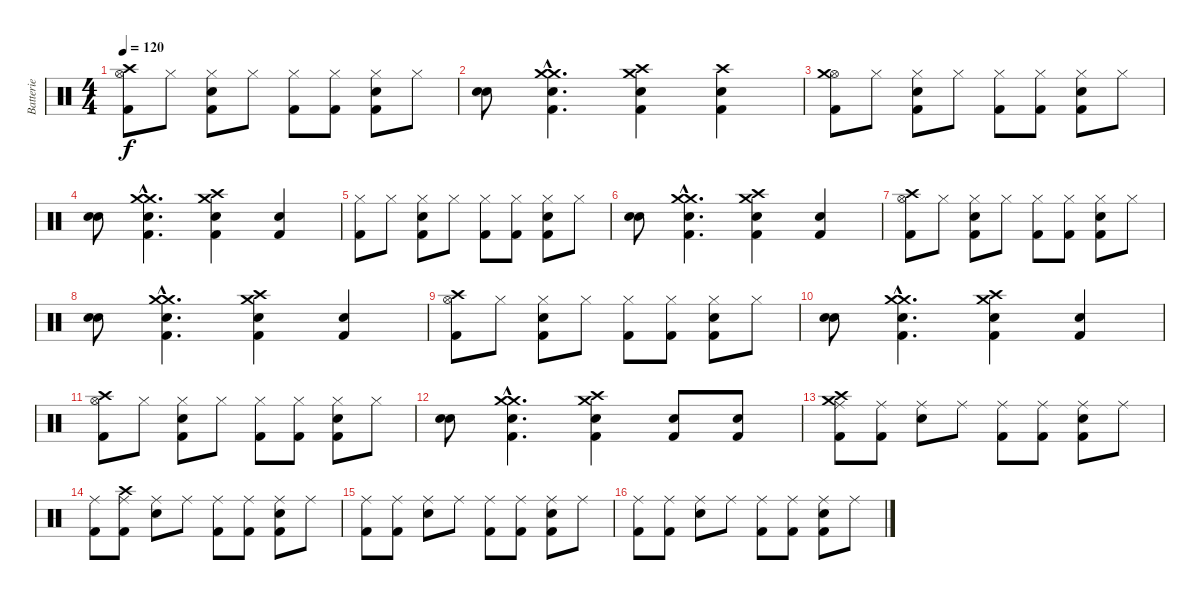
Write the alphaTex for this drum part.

\track ("Batterie" "Batterie") {instrument percussion}
\staff {score}
\articulation defaults
\ts (4 4)
\tempo 120
\clef neutral
\ks c
("Hi-Hat (open)" "Crash high (hit)" "Kick (hit) 2").8{dy f} "Hi-Hat (closed)".8 ("Hi-Hat (closed)" "Snare (hit) 2" "Kick (hit) 2").8 "Hi-Hat (closed)".8 ("Hi-Hat (closed)" "Kick (hit) 2").8 ("Hi-Hat (closed)" "Kick (hit) 2").8 ("Hi-Hat (closed)" "Snare (hit) 2" "Kick (hit) 2").8 "Hi-Hat (closed)".8 |
("Snare (hit) 2" "Snare (hit) 2").8 ("Crash medium (hit)"{hac} "Crash medium (hit)"{hac} "Snare (hit) 2"{hac} "Kick (hit) 2"{hac}).4{d} ("Crash medium (hit)" "Crash high (hit)" "Snare (hit) 2" "Kick (hit) 2").4 ("Crash high (hit)" "Snare (hit) 2" "Kick (hit) 2").4 |
("Hi-Hat (open)" "Crash medium (hit)" "Kick (hit) 2").8 "Hi-Hat (closed)".8 ("Hi-Hat (closed)" "Snare (hit) 2" "Kick (hit) 2").8 "Hi-Hat (closed)".8 ("Hi-Hat (closed)" "Kick (hit) 2").8 ("Hi-Hat (closed)" "Kick (hit) 2").8 ("Hi-Hat (closed)" "Snare (hit) 2" "Kick (hit) 2").8 "Hi-Hat (closed)".8 |
("Snare (hit) 2" "Snare (hit) 2").8 ("Crash medium (hit)"{hac} "Crash medium (hit)"{hac} "Snare (hit) 2"{hac} "Kick (hit) 2"{hac}).4{d} ("Crash medium (hit)" "Crash high (hit)" "Snare (hit) 2" "Kick (hit) 2").4 ("Snare (hit) 2" "Kick (hit) 2").4 |
("Hi-Hat (closed)" "Kick (hit) 2").8 "Hi-Hat (closed)".8 ("Hi-Hat (closed)" "Snare (hit) 2" "Kick (hit) 2").8 "Hi-Hat (closed)".8 ("Hi-Hat (closed)" "Kick (hit) 2").8 ("Hi-Hat (closed)" "Kick (hit) 2").8 ("Hi-Hat (closed)" "Snare (hit) 2" "Kick (hit) 2").8 "Hi-Hat (closed)".8 |
("Snare (hit) 2" "Snare (hit) 2").8 ("Crash medium (hit)"{hac} "Crash medium (hit)"{hac} "Snare (hit) 2"{hac} "Kick (hit) 2"{hac}).4{d} ("Crash medium (hit)" "Crash high (hit)" "Snare (hit) 2" "Kick (hit) 2").4 ("Snare (hit) 2" "Kick (hit) 2").4 |
("Hi-Hat (open)" "Crash high (hit)" "Kick (hit) 2").8 "Hi-Hat (closed)".8 ("Hi-Hat (closed)" "Snare (hit) 2" "Kick (hit) 2").8 "Hi-Hat (closed)".8 ("Hi-Hat (closed)" "Kick (hit) 2").8 ("Hi-Hat (closed)" "Kick (hit) 2").8 ("Hi-Hat (closed)" "Snare (hit) 2" "Kick (hit) 2").8 "Hi-Hat (closed)".8 |
("Snare (hit) 2" "Snare (hit) 2").8 ("Crash medium (hit)"{hac} "Crash medium (hit)"{hac} "Snare (hit) 2"{hac} "Kick (hit) 2"{hac}).4{d} ("Crash medium (hit)" "Crash high (hit)" "Snare (hit) 2" "Kick (hit) 2").4 ("Snare (hit) 2" "Kick (hit) 2").4 |
("Hi-Hat (open)" "Crash high (hit)" "Kick (hit) 2").8 "Hi-Hat (closed)".8 ("Hi-Hat (closed)" "Snare (hit) 2" "Kick (hit) 2").8 "Hi-Hat (closed)".8 ("Hi-Hat (closed)" "Kick (hit) 2").8 ("Hi-Hat (closed)" "Kick (hit) 2").8 ("Hi-Hat (closed)" "Snare (hit) 2" "Kick (hit) 2").8 "Hi-Hat (closed)".8 |
("Snare (hit) 2" "Snare (hit) 2").8 ("Crash medium (hit)"{hac} "Crash medium (hit)"{hac} "Snare (hit) 2"{hac} "Kick (hit) 2"{hac}).4{d} ("Crash medium (hit)" "Crash high (hit)" "Snare (hit) 2" "Kick (hit) 2").4 ("Snare (hit) 2" "Kick (hit) 2").4 |
("Hi-Hat (open)" "Crash high (hit)" "Kick (hit) 2").8 "Hi-Hat (closed)".8 ("Hi-Hat (closed)" "Snare (hit) 2" "Kick (hit) 2").8 "Hi-Hat (closed)".8 ("Hi-Hat (closed)" "Kick (hit) 2").8 ("Hi-Hat (closed)" "Kick (hit) 2").8 ("Hi-Hat (closed)" "Snare (hit) 2" "Kick (hit) 2").8 "Hi-Hat (closed)".8 |
("Snare (hit) 2" "Snare (hit) 2").8 ("Crash medium (hit)"{hac} "Crash medium (hit)"{hac} "Snare (hit) 2"{hac} "Kick (hit) 2"{hac}).4{d} ("Crash medium (hit)" "Crash high (hit)" "Snare (hit) 2" "Kick (hit) 2").4 ("Snare (hit) 2" "Kick (hit) 2").8 ("Snare (hit) 2" "Kick (hit) 2").8 |
("Ride (middle)" "Crash high (hit)" "Crash medium (hit)" "Kick (hit) 2").8 ("Ride (middle)" "Kick (hit) 2").8 ("Ride (middle)" "Snare (hit) 2").8 "Ride (middle)".8 ("Ride (middle)" "Kick (hit) 2").8 ("Ride (middle)" "Kick (hit) 2").8 ("Ride (middle)" "Snare (hit) 2" "Kick (hit) 2").8 "Ride (middle)".8 |
("Ride (middle)" "Kick (hit) 2").8 ("Ride (middle)" "Crash high (hit)" "Kick (hit) 2").8 ("Ride (middle)" "Snare (hit) 2").8 "Ride (middle)".8 ("Ride (middle)" "Kick (hit) 2").8 ("Ride (middle)" "Kick (hit) 2").8 ("Ride (middle)" "Snare (hit) 2" "Kick (hit) 2").8 "Ride (middle)".8 |
("Ride (middle)" "Kick (hit) 2").8 ("Ride (middle)" "Kick (hit) 2").8 ("Ride (middle)" "Snare (hit) 2").8 "Ride (middle)".8 ("Ride (middle)" "Kick (hit) 2").8 ("Ride (middle)" "Kick (hit) 2").8 ("Ride (middle)" "Snare (hit) 2" "Kick (hit) 2").8 "Ride (middle)".8 |
("Ride (middle)" "Kick (hit) 2").8 ("Ride (middle)" "Kick (hit) 2").8 ("Ride (middle)" "Snare (hit) 2").8 "Ride (middle)".8 ("Ride (middle)" "Kick (hit) 2").8 ("Ride (middle)" "Kick (hit) 2").8 ("Ride (middle)" "Snare (hit) 2" "Kick (hit) 2").8 "Ride (middle)".8
